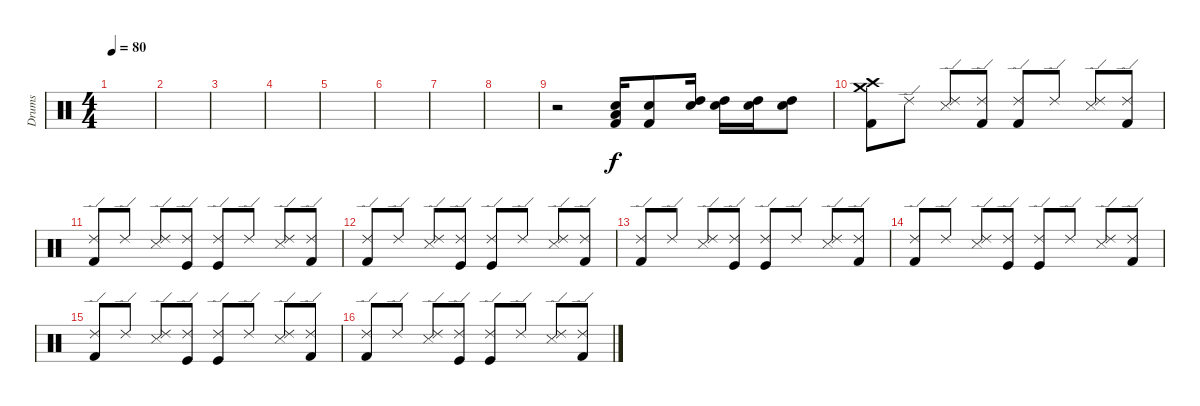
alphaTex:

\track ("Drums" "Drums") {instrument percussion}
\staff {score}
\articulation defaults
\ts (4 4)
\tempo 80
\clef neutral
\ks c
|
|
|
|
|
|
|
|
r.2 ("Snare (hit) 2" "Low Tom (hit)" "Kick (hit) 2").16 ("Snare (hit) 2" "Kick (hit) 2").8{dy f} ("Snare (hit) 2" "High Tom (hit)").16 ("Snare (hit) 2" "High Tom (hit)").16 ("Snare (hit) 2" "High Tom (hit)").16 ("Snare (hit) 2" "High Tom (hit)").8 |
("Kick (hit) 2" "Crash medium (hit)" "Crash high (hit)").8 "Ride (edge) 2".8 ("Ride (edge) 2" "Snare (side stick) 3").8 ("Ride (edge) 2" "Kick (hit) 2").8 ("Ride (edge) 2" "Kick (hit) 2").8 "Ride (edge) 2".8 ("Ride (edge) 2" "Snare (side stick) 3").8 ("Ride (edge) 2" "Kick (hit) 2").8 |
("Kick (hit) 2" "Ride (edge) 2").8 "Ride (edge) 2".8 ("Ride (edge) 2" "Snare (side stick) 3").8 ("Ride (edge) 2" "Kick (hit)").8 ("Ride (edge) 2" "Kick (hit)").8 "Ride (edge) 2".8 ("Ride (edge) 2" "Snare (side stick) 3").8 ("Ride (edge) 2" "Kick (hit) 2").8 |
("Kick (hit) 2" "Ride (edge) 2").8 "Ride (edge) 2".8 ("Ride (edge) 2" "Snare (side stick) 3").8 ("Ride (edge) 2" "Kick (hit)").8 ("Ride (edge) 2" "Kick (hit)").8 "Ride (edge) 2".8 ("Ride (edge) 2" "Snare (side stick) 3").8 ("Ride (edge) 2" "Kick (hit) 2").8 |
("Kick (hit) 2" "Ride (edge) 2").8 "Ride (edge) 2".8 ("Ride (edge) 2" "Snare (side stick) 3").8 ("Ride (edge) 2" "Kick (hit)").8 ("Ride (edge) 2" "Kick (hit)").8 "Ride (edge) 2".8 ("Ride (edge) 2" "Snare (side stick) 3").8 ("Ride (edge) 2" "Kick (hit) 2").8 |
("Kick (hit) 2" "Ride (edge) 2").8 "Ride (edge) 2".8 ("Ride (edge) 2" "Snare (side stick) 3").8 ("Ride (edge) 2" "Kick (hit)").8 ("Ride (edge) 2" "Kick (hit)").8 "Ride (edge) 2".8 ("Ride (edge) 2" "Snare (side stick) 3").8 ("Ride (edge) 2" "Kick (hit) 2").8 |
("Kick (hit) 2" "Ride (edge) 2").8 "Ride (edge) 2".8 ("Ride (edge) 2" "Snare (side stick) 3").8 ("Ride (edge) 2" "Kick (hit)").8 ("Ride (edge) 2" "Kick (hit)").8 "Ride (edge) 2".8 ("Ride (edge) 2" "Snare (side stick) 3").8 ("Ride (edge) 2" "Kick (hit) 2").8 |
("Kick (hit) 2" "Ride (edge) 2").8 "Ride (edge) 2".8 ("Ride (edge) 2" "Snare (side stick) 3").8 ("Ride (edge) 2" "Kick (hit)").8 ("Ride (edge) 2" "Kick (hit)").8 "Ride (edge) 2".8 ("Ride (edge) 2" "Snare (side stick) 3").8 ("Ride (edge) 2" "Kick (hit) 2").8
